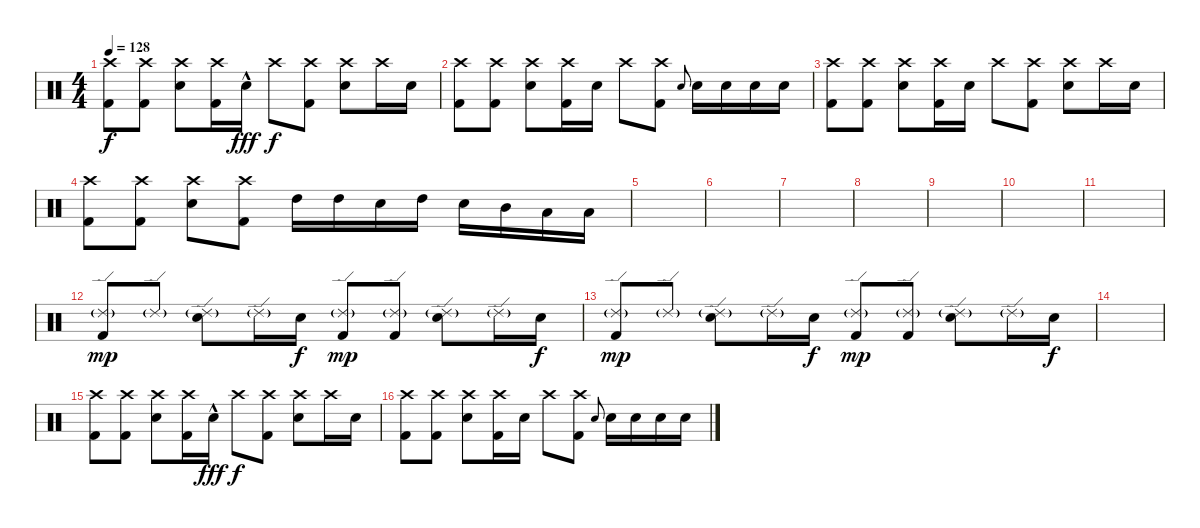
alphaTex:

\track "" {solo instrument percussion}
\staff {score}
\articulation defaults
\ts (4 4)
\tempo 128
\clef neutral
\ks c
("Crash high (hit)" "Kick (hit) 2").8{dy f} ("Crash high (hit)" "Kick (hit) 2").8 ("Crash high (hit)" "Snare (hit) 2").8 ("Crash high (hit)" "Kick (hit) 2").16 "Snare (hit) 2"{hac}.16{dy fff} "Crash high (hit)".8{dy f} ("Crash high (hit)" "Kick (hit) 2").8 ("Crash high (hit)" "Snare (hit) 2").8 "Crash high (hit)".16 "Snare (hit) 2".16 |
("Crash high (hit)" "Kick (hit) 2").8 ("Crash high (hit)" "Kick (hit) 2").8 ("Crash high (hit)" "Snare (hit) 2").8 ("Crash high (hit)" "Kick (hit) 2").16 "Snare (hit) 2".16 "Crash high (hit)".8 ("Crash high (hit)" "Kick (hit) 2").8 "Snare (hit) 2".8{gr onbeat} "Snare (hit) 2".16 "Snare (hit) 2".16 "Snare (hit) 2".16 "Snare (hit) 2".16 |
("Crash high (hit)" "Kick (hit) 2").8 ("Crash high (hit)" "Kick (hit) 2").8 ("Crash high (hit)" "Snare (hit) 2").8 ("Crash high (hit)" "Kick (hit) 2").16 "Snare (hit) 2".16 "Crash high (hit)".8 ("Crash high (hit)" "Kick (hit) 2").8 ("Crash high (hit)" "Snare (hit) 2").8 "Crash high (hit)".16 "Snare (hit) 2".16 |
("Crash high (hit)" "Kick (hit) 2").8 ("Crash high (hit)" "Kick (hit) 2").8 ("Crash high (hit)" "Snare (hit) 2").8 ("Crash high (hit)" "Kick (hit) 2").8 "High Tom (hit)".16 "High Tom (hit)".16 "Snare (hit) 2".16 "High Tom (hit)".16 "Snare (hit) 2".16 "Mid Tom (hit)".16 "Low Tom (hit)".16 "Low Tom (hit)".16 |
|
|
|
|
|
|
|
("Ride (edge) 2"{g} "Kick (hit) 2").8{dy mp} "Ride (edge) 2"{g}.8 ("Ride (edge) 2"{g} "Snare (hit) 2").8 "Ride (edge) 2"{g}.16 "Snare (hit) 2".16{dy f} ("Ride (edge) 2"{g} "Kick (hit) 2").8{dy mp} ("Ride (edge) 2"{g} "Kick (hit) 2").8 ("Ride (edge) 2"{g} "Snare (hit) 2").8 "Ride (edge) 2"{g}.16 "Snare (hit) 2".16{dy f} |
("Ride (edge) 2"{g} "Kick (hit) 2").8{dy mp} "Ride (edge) 2"{g}.8 ("Ride (edge) 2"{g} "Snare (hit) 2").8 "Ride (edge) 2"{g}.16 "Snare (hit) 2".16{dy f} ("Ride (edge) 2"{g} "Kick (hit) 2").8{dy mp} ("Ride (edge) 2"{g} "Kick (hit) 2").8 ("Ride (edge) 2"{g} "Snare (hit) 2").8 "Ride (edge) 2"{g}.16 "Snare (hit) 2".16{dy f} |
|
("Crash high (hit)" "Kick (hit) 2").8 ("Crash high (hit)" "Kick (hit) 2").8 ("Crash high (hit)" "Snare (hit) 2").8 ("Crash high (hit)" "Kick (hit) 2").16 "Snare (hit) 2"{hac}.16{dy fff} "Crash high (hit)".8{dy f} ("Crash high (hit)" "Kick (hit) 2").8 ("Crash high (hit)" "Snare (hit) 2").8 "Crash high (hit)".16 "Snare (hit) 2".16 |
("Crash high (hit)" "Kick (hit) 2").8 ("Crash high (hit)" "Kick (hit) 2").8 ("Crash high (hit)" "Snare (hit) 2").8 ("Crash high (hit)" "Kick (hit) 2").16 "Snare (hit) 2".16 "Crash high (hit)".8 ("Crash high (hit)" "Kick (hit) 2").8 "Snare (hit) 2".8{gr onbeat} "Snare (hit) 2".16 "Snare (hit) 2".16 "Snare (hit) 2".16 "Snare (hit) 2".16
